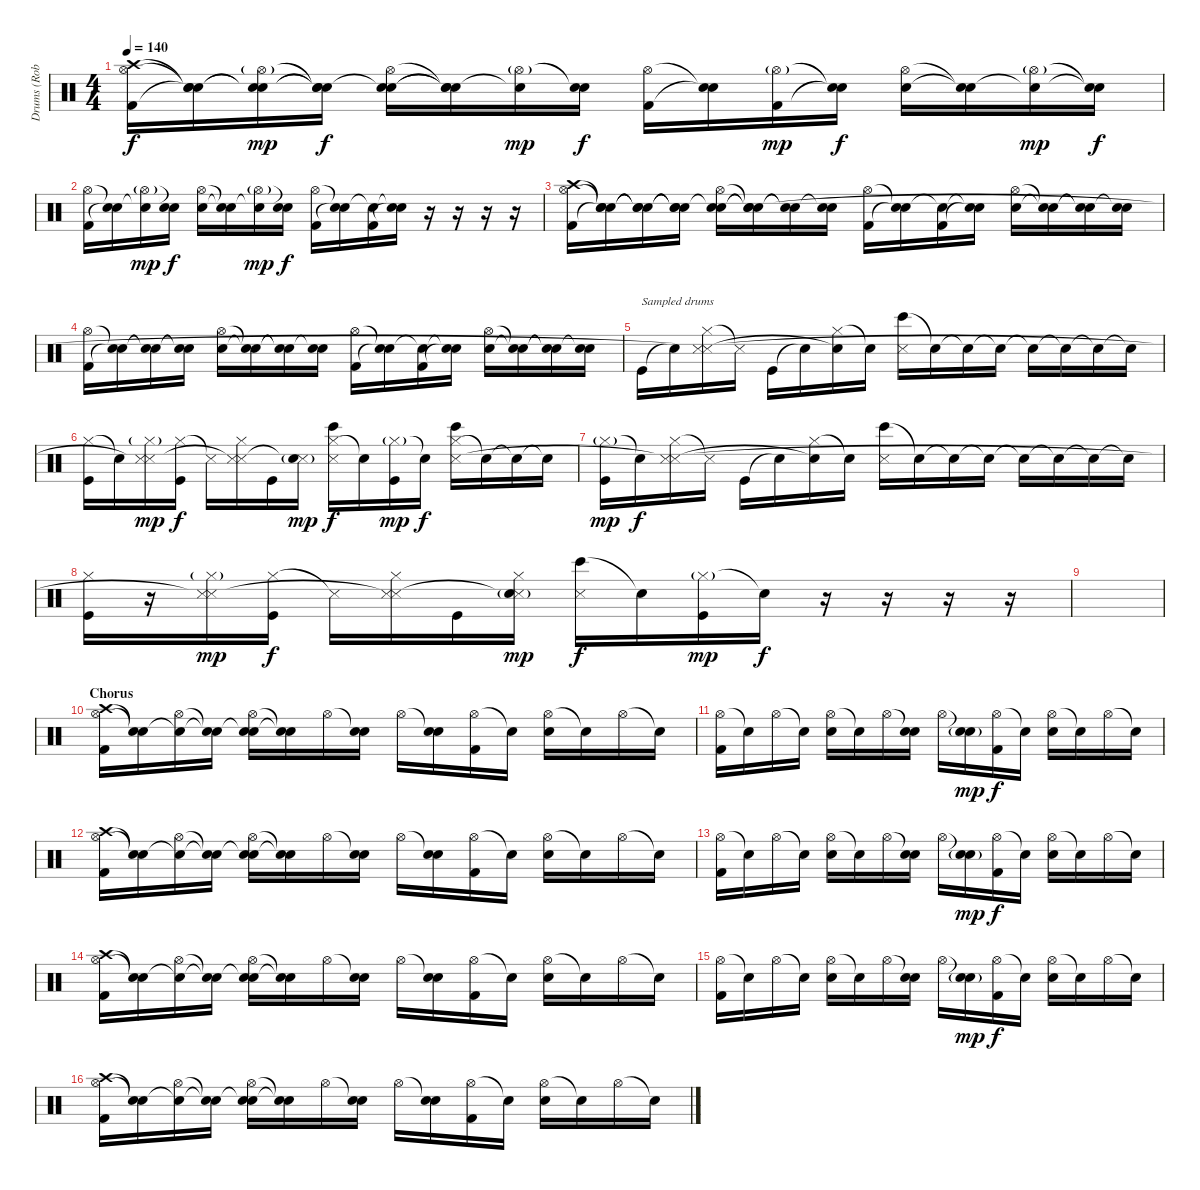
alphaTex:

\track ("Drums (Rob Bourdon)" "Drums (Rob") {instrument percussion}
\staff {score}
\articulation defaults
\ts (4 4)
\tempo 140
\clef neutral
\ks c
("Crash high (hit)" "Hi-Hat (open)" "Kick (hit) 2").16{dy f} ("Snare (hit)"{t} "Snare (hit)"{t} "Snare (hit)"{t}).16 ("Snare (hit)"{t} "Hi-Hat (open)"{g} "Snare (hit)"{t}).16{dy mp} ("Snare (hit)"{t} "Snare (hit)"{t} "Snare (hit)"{t}).16{dy f} ("Snare (hit)"{t} "Hi-Hat (open)" "Electric Snare (hit)").16 ("Snare (hit)"{t} "Snare (hit)"{t} "Snare (hit)"{t}).16 ("Hi-Hat (open)"{g} "Snare (hit)"{t}).16{dy mp} ("Snare (hit)"{t} "Electric Snare (hit)").16{dy f} ("Hi-Hat (open)" "Kick (hit) 2").16 ("Snare (hit)"{t} "Snare (hit)"{t}).16 ("Hi-Hat (open)"{g} "Kick (hit) 2").16{dy mp} ("Snare (hit)"{t} "Snare (hit)"{t}).16{dy f} ("Hi-Hat (open)" "Electric Snare (hit)").16 ("Snare (hit)"{t} "Snare (hit)"{t}).16 ("Hi-Hat (open)"{g} "Snare (hit)"{t}).16{dy mp} ("Snare (hit)"{t} "Snare (hit)"{t}).16{dy f} |
("Hi-Hat (open)" "Kick (hit) 2").16 ("Snare (hit)"{t} "Snare (hit)"{t}).16 ("Hi-Hat (open)"{g} "Snare (hit)"{t}).16{dy mp} ("Snare (hit)"{t} "Snare (hit)"{t}).16{dy f} ("Hi-Hat (open)" "Electric Snare (hit)").16 ("Snare (hit)"{t} "Snare (hit)"{t}).16 ("Hi-Hat (open)"{g} "Snare (hit)"{t}).16{dy mp} ("Snare (hit)"{t} "Electric Snare (hit)").16{dy f} ("Hi-Hat (open)" "Kick (hit) 2").16 ("Snare (hit)"{t} "Snare (hit)"{t}).16 ("Snare (hit)"{t} "Kick (hit) 2").16 ("Snare (hit)"{t} "Snare (hit)"{t}).16 r.16 r.16 r.16 r.16 |
("Crash high (hit)" "Hi-Hat (open)" "Kick (hit) 2").16 ("Snare (hit)"{t} "Snare (hit)"{t} "Snare (hit)"{t}).16 ("Snare (hit)"{t} "Snare (hit)"{t} "Snare (hit)"{t}).16 ("Snare (hit)"{t} "Snare (hit)"{t} "Snare (hit)"{t}).16 ("Snare (hit)"{t} "Hi-Hat (open)" "Electric Snare (hit)").16 ("Snare (hit)"{t} "Snare (hit)"{t} "Snare (hit)"{t}).16 ("Snare (hit)"{t} "Snare (hit)"{t}).16 ("Snare (hit)"{t} "Electric Snare (hit)").16 ("Hi-Hat (open)" "Kick (hit) 2").16 ("Snare (hit)"{t} "Snare (hit)"{t}).16 ("Snare (hit)"{t} "Kick (hit) 2").16 ("Snare (hit)"{t} "Snare (hit)"{t}).16 ("Hi-Hat (open)" "Electric Snare (hit)").16 ("Snare (hit)"{t} "Snare (hit)"{t}).16 ("Snare (hit)"{t} "Snare (hit)"{t}).16 ("Snare (hit)"{t} "Electric Snare (hit)").16 |
("Hi-Hat (open)" "Kick (hit) 2").16 ("Snare (hit)"{t} "Snare (hit)"{t}).16 ("Snare (hit)"{t} "Snare (hit)"{t}).16 ("Snare (hit)"{t} "Snare (hit)"{t}).16 ("Hi-Hat (open)" "Electric Snare (hit)").16 ("Snare (hit)"{t} "Snare (hit)"{t}).16 ("Snare (hit)"{t} "Snare (hit)"{t}).16 ("Snare (hit)"{t} "Electric Snare (hit)").16 ("Hi-Hat (open)" "Kick (hit) 2").16 ("Snare (hit)"{t} "Snare (hit)"{t}).16 ("Snare (hit)"{t} "Kick (hit) 2").16 ("Snare (hit)"{t} "Snare (hit)"{t}).16 ("Hi-Hat (open)" "Electric Snare (hit)").16 ("Snare (hit)"{t} "Snare (hit)"{t}).16 ("Snare (hit)"{t} "Snare (hit)"{t}).16 ("Snare (hit)"{t} "Electric Snare (hit)").16 |
"Kick (hit)".16{txt "Sampled drums"} "Snare (hit)"{t}.16 ("Hi-Hat (closed)" "Metronome (hit)" "Metronome (hit)"{t}).16 "Metronome (hit)"{t}.16 "Kick (hit)".16 "Snare (hit)"{t}.16 ("Hi-Hat (closed)" "Snare (hit)"{t}).16 "Snare (hit)"{t}.16 ("Bongo High (hit)" "Snare (side stick) 3").16 "Snare (hit)"{t}.16 "Snare (hit)"{t}.16 "Snare (hit)"{t}.16 "Snare (hit)"{t}.16 "Snare (hit)"{t}.16 "Snare (hit)"{t}.16 "Snare (hit)"{t}.16 |
("Hi-Hat (closed)" "Kick (hit)").16 "Snare (hit)"{t}.16 ("Hi-Hat (closed)"{g} "Metronome (hit)" "Metronome (hit)"{t}).16{dy mp} ("Hi-Hat (closed)" "Kick (hit)").16{dy f} "Metronome (hit)"{t}.16 ("Hi-Hat (closed)" "Metronome (hit)" "Metronome (hit)"{t}).16 "Kick (hit)".16 ("Metronome (hit)"{g} "Snare (hit)"{t}).16{dy mp} ("Hi-Hat (closed)" "Bongo High (hit)" "Snare (side stick) 3").16{dy f} "Snare (hit)"{t}.16 ("Hi-Hat (closed)"{g} "Kick (hit)").16{dy mp} "Snare (hit)"{t}.16{dy f} ("Hi-Hat (closed)" "Bongo High (hit)" "Snare (side stick) 3").16 "Snare (hit)"{t}.16 "Snare (hit)"{t}.16 "Snare (hit)"{t}.16 |
("Hi-Hat (closed)"{g} "Kick (hit)").16{dy mp} "Snare (hit)"{t}.16{dy f} ("Hi-Hat (closed)" "Metronome (hit)" "Metronome (hit)"{t}).16 "Metronome (hit)"{t}.16 "Kick (hit)".16 "Snare (hit)"{t}.16 ("Hi-Hat (closed)" "Snare (hit)"{t}).16 "Snare (hit)"{t}.16 ("Bongo High (hit)" "Snare (side stick) 3").16 "Snare (hit)"{t}.16 "Snare (hit)"{t}.16 "Snare (hit)"{t}.16 "Snare (hit)"{t}.16 "Snare (hit)"{t}.16 "Snare (hit)"{t}.16 "Snare (hit)"{t}.16 |
("Hi-Hat (closed)" "Kick (hit)").16 r.16 ("Hi-Hat (closed)"{g} "Metronome (hit)" "Metronome (hit)"{t}).16{dy mp} ("Hi-Hat (closed)" "Kick (hit)").16{dy f} "Metronome (hit)"{t}.16 ("Hi-Hat (closed)" "Metronome (hit)" "Metronome (hit)"{t}).16 "Kick (hit)".16 ("Hi-Hat (closed)" "Metronome (hit)"{g} "Snare (hit)"{t}).16{dy mp} ("Bongo High (hit)" "Snare (side stick) 3").16{dy f} "Snare (hit)"{t}.16 ("Hi-Hat (closed)"{g} "Kick (hit)").16{dy mp} "Snare (hit)"{t}.16{dy f} r.16 r.16 r.16 r.16 |
|
\section ("" "Chorus")
("Crash high (hit)" "Hi-Hat (open)" "Kick (hit) 2").16{volume 14} ("Snare (hit)"{t} "Snare (hit)"{t}).16 ("Snare (hit)"{t} "Hi-Hat (open)").16 ("Snare (hit)"{t} "Snare (hit)"{t}).16 ("Snare (hit)"{t} "Hi-Hat (open)" "Electric Snare (hit)").16 ("Snare (hit)"{t} "Snare (hit)"{t}).16 "Hi-Hat (open)".16 ("Snare (hit)"{t} "Electric Snare (hit)").16 "Hi-Hat (open)".16 ("Snare (hit)"{t} "Electric Snare (hit)").16 ("Hi-Hat (open)" "Kick (hit) 2").16 "Snare (hit)"{t}.16 ("Hi-Hat (open)" "Electric Snare (hit)").16 "Snare (hit)"{t}.16 "Hi-Hat (open)".16 "Snare (hit)"{t}.16 |
("Hi-Hat (open)" "Kick (hit) 2").16 "Snare (hit)"{t}.16 "Hi-Hat (open)".16 "Snare (hit)"{t}.16 ("Hi-Hat (open)" "Electric Snare (hit)").16 "Snare (hit)"{t}.16 "Hi-Hat (open)".16 ("Snare (hit)"{t} "Electric Snare (hit)").16 "Hi-Hat (open)".16 ("Snare (hit)"{t} "Electric Snare (hit)"{g}).16{dy mp} ("Hi-Hat (open)" "Kick (hit) 2").16{dy f} "Snare (hit)"{t}.16 ("Hi-Hat (open)" "Electric Snare (hit)").16 "Snare (hit)"{t}.16 "Hi-Hat (open)".16 "Snare (hit)"{t}.16 |
("Crash high (hit)" "Hi-Hat (open)" "Kick (hit) 2").16{volume 14} ("Snare (hit)"{t} "Snare (hit)"{t}).16 ("Snare (hit)"{t} "Hi-Hat (open)").16 ("Snare (hit)"{t} "Snare (hit)"{t}).16 ("Snare (hit)"{t} "Hi-Hat (open)" "Electric Snare (hit)").16 ("Snare (hit)"{t} "Snare (hit)"{t}).16 "Hi-Hat (open)".16 ("Snare (hit)"{t} "Electric Snare (hit)").16 "Hi-Hat (open)".16 ("Snare (hit)"{t} "Electric Snare (hit)").16 ("Hi-Hat (open)" "Kick (hit) 2").16 "Snare (hit)"{t}.16 ("Hi-Hat (open)" "Electric Snare (hit)").16 "Snare (hit)"{t}.16 "Hi-Hat (open)".16 "Snare (hit)"{t}.16 |
("Hi-Hat (open)" "Kick (hit) 2").16 "Snare (hit)"{t}.16 "Hi-Hat (open)".16 "Snare (hit)"{t}.16 ("Hi-Hat (open)" "Electric Snare (hit)").16 "Snare (hit)"{t}.16 "Hi-Hat (open)".16 ("Snare (hit)"{t} "Electric Snare (hit)").16 "Hi-Hat (open)".16 ("Snare (hit)"{t} "Electric Snare (hit)"{g}).16{dy mp} ("Hi-Hat (open)" "Kick (hit) 2").16{dy f} "Snare (hit)"{t}.16 ("Hi-Hat (open)" "Electric Snare (hit)").16 "Snare (hit)"{t}.16 "Hi-Hat (open)".16 "Snare (hit)"{t}.16 |
("Crash high (hit)" "Hi-Hat (open)" "Kick (hit) 2").16{volume 14} ("Snare (hit)"{t} "Snare (hit)"{t}).16 ("Snare (hit)"{t} "Hi-Hat (open)").16 ("Snare (hit)"{t} "Snare (hit)"{t}).16 ("Snare (hit)"{t} "Hi-Hat (open)" "Electric Snare (hit)").16 ("Snare (hit)"{t} "Snare (hit)"{t}).16 "Hi-Hat (open)".16 ("Snare (hit)"{t} "Electric Snare (hit)").16 "Hi-Hat (open)".16 ("Snare (hit)"{t} "Electric Snare (hit)").16 ("Hi-Hat (open)" "Kick (hit) 2").16 "Snare (hit)"{t}.16 ("Hi-Hat (open)" "Electric Snare (hit)").16 "Snare (hit)"{t}.16 "Hi-Hat (open)".16 "Snare (hit)"{t}.16 |
("Hi-Hat (open)" "Kick (hit) 2").16 "Snare (hit)"{t}.16 "Hi-Hat (open)".16 "Snare (hit)"{t}.16 ("Hi-Hat (open)" "Electric Snare (hit)").16 "Snare (hit)"{t}.16 "Hi-Hat (open)".16 ("Snare (hit)"{t} "Electric Snare (hit)").16 "Hi-Hat (open)".16 ("Snare (hit)"{t} "Electric Snare (hit)"{g}).16{dy mp} ("Hi-Hat (open)" "Kick (hit) 2").16{dy f} "Snare (hit)"{t}.16 ("Hi-Hat (open)" "Electric Snare (hit)").16 "Snare (hit)"{t}.16 "Hi-Hat (open)".16 "Snare (hit)"{t}.16 |
("Crash high (hit)" "Hi-Hat (open)" "Kick (hit) 2").16{volume 14} ("Snare (hit)"{t} "Snare (hit)"{t}).16 ("Snare (hit)"{t} "Hi-Hat (open)").16 ("Snare (hit)"{t} "Snare (hit)"{t}).16 ("Snare (hit)"{t} "Hi-Hat (open)" "Electric Snare (hit)").16 ("Snare (hit)"{t} "Snare (hit)"{t}).16 "Hi-Hat (open)".16 ("Snare (hit)"{t} "Electric Snare (hit)").16 "Hi-Hat (open)".16 ("Snare (hit)"{t} "Electric Snare (hit)").16 ("Hi-Hat (open)" "Kick (hit) 2").16 "Snare (hit)"{t}.16 ("Hi-Hat (open)" "Electric Snare (hit)").16 "Snare (hit)"{t}.16 "Hi-Hat (open)".16 "Snare (hit)"{t}.16
